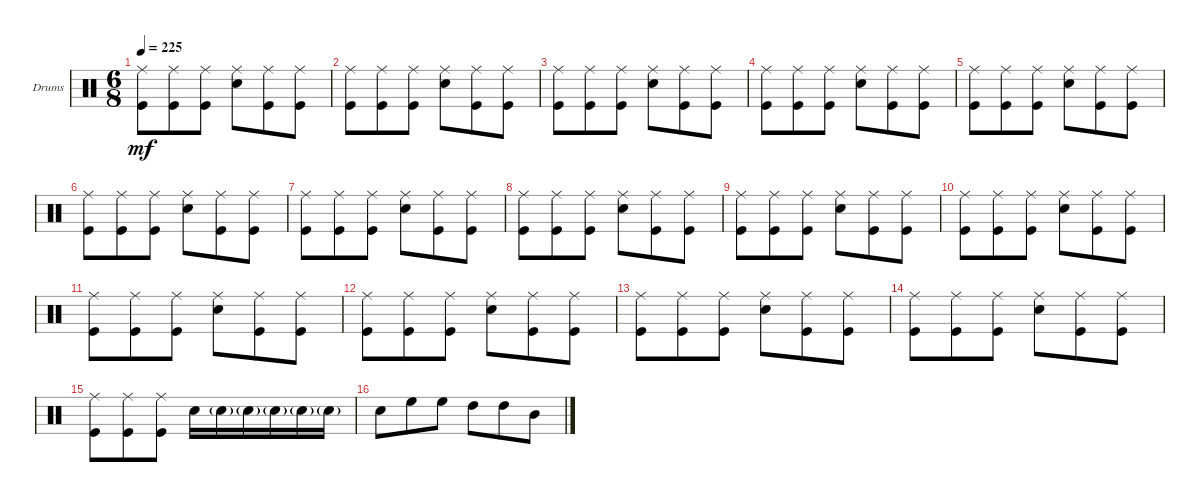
\bracketExtendMode groupsimilarinstruments
\firstSystemTrackNameOrientation horizontal
\otherSystemsTrackNameOrientation horizontal
\track ("Drumkit" "Drums") {instrument percussion}
\staff {score}
\articulation defaults
\ts (6 8)
\tempo 225
\clef neutral
\ks c
("Kick (hit)" "Ride (middle)").8{dy mf} ("Kick (hit)" "Ride (middle)").8 ("Kick (hit)" "Ride (middle)").8 ("Snare (hit) 2" "Ride (middle)").8 ("Kick (hit)" "Ride (middle)").8 ("Kick (hit)" "Ride (middle)").8 |
("Kick (hit)" "Ride (middle)").8 ("Kick (hit)" "Ride (middle)").8 ("Kick (hit)" "Ride (middle)").8 ("Snare (hit) 2" "Ride (middle)").8 ("Kick (hit)" "Ride (middle)").8 ("Kick (hit)" "Ride (middle)").8 |
("Kick (hit)" "Ride (middle)").8 ("Kick (hit)" "Ride (middle)").8 ("Kick (hit)" "Ride (middle)").8 ("Snare (hit) 2" "Ride (middle)").8 ("Kick (hit)" "Ride (middle)").8 ("Kick (hit)" "Ride (middle)").8 |
("Kick (hit)" "Ride (middle)").8 ("Kick (hit)" "Ride (middle)").8 ("Kick (hit)" "Ride (middle)").8 ("Snare (hit) 2" "Ride (middle)").8 ("Kick (hit)" "Ride (middle)").8 ("Kick (hit)" "Ride (middle)").8 |
("Kick (hit)" "Ride (middle)").8 ("Kick (hit)" "Ride (middle)").8 ("Kick (hit)" "Ride (middle)").8 ("Snare (hit) 2" "Ride (middle)").8 ("Kick (hit)" "Ride (middle)").8 ("Kick (hit)" "Ride (middle)").8 |
("Kick (hit)" "Ride (middle)").8 ("Kick (hit)" "Ride (middle)").8 ("Kick (hit)" "Ride (middle)").8 ("Snare (hit) 2" "Ride (middle)").8 ("Kick (hit)" "Ride (middle)").8 ("Kick (hit)" "Ride (middle)").8 |
("Kick (hit)" "Ride (middle)").8 ("Kick (hit)" "Ride (middle)").8 ("Kick (hit)" "Ride (middle)").8 ("Snare (hit) 2" "Ride (middle)").8 ("Kick (hit)" "Ride (middle)").8 ("Kick (hit)" "Ride (middle)").8 |
("Kick (hit)" "Ride (middle)").8 ("Kick (hit)" "Ride (middle)").8 ("Kick (hit)" "Ride (middle)").8 ("Snare (hit) 2" "Ride (middle)").8 ("Kick (hit)" "Ride (middle)").8 ("Kick (hit)" "Ride (middle)").8 |
("Kick (hit)" "Ride (middle)").8 ("Kick (hit)" "Ride (middle)").8 ("Kick (hit)" "Ride (middle)").8 ("Snare (hit) 2" "Ride (middle)").8 ("Kick (hit)" "Ride (middle)").8 ("Kick (hit)" "Ride (middle)").8 |
("Kick (hit)" "Ride (middle)").8 ("Kick (hit)" "Ride (middle)").8 ("Kick (hit)" "Ride (middle)").8 ("Snare (hit) 2" "Ride (middle)").8 ("Kick (hit)" "Ride (middle)").8 ("Kick (hit)" "Ride (middle)").8 |
("Kick (hit)" "Ride (middle)").8 ("Kick (hit)" "Ride (middle)").8 ("Kick (hit)" "Ride (middle)").8 ("Snare (hit) 2" "Ride (middle)").8 ("Kick (hit)" "Ride (middle)").8 ("Kick (hit)" "Ride (middle)").8 |
("Kick (hit)" "Ride (middle)").8 ("Kick (hit)" "Ride (middle)").8 ("Kick (hit)" "Ride (middle)").8 ("Snare (hit) 2" "Ride (middle)").8 ("Kick (hit)" "Ride (middle)").8 ("Kick (hit)" "Ride (middle)").8 |
("Kick (hit)" "Ride (middle)").8 ("Kick (hit)" "Ride (middle)").8 ("Kick (hit)" "Ride (middle)").8 ("Snare (hit) 2" "Ride (middle)").8 ("Kick (hit)" "Ride (middle)").8 ("Kick (hit)" "Ride (middle)").8 |
("Kick (hit)" "Ride (middle)").8 ("Kick (hit)" "Ride (middle)").8 ("Kick (hit)" "Ride (middle)").8 ("Snare (hit) 2" "Ride (middle)").8 ("Kick (hit)" "Ride (middle)").8 ("Kick (hit)" "Ride (middle)").8 |
("Kick (hit)" "Ride (middle)").8 ("Kick (hit)" "Ride (middle)").8 ("Kick (hit)" "Ride (middle)").8 "Snare (hit) 2".16 "Snare (hit) 2"{g}.16 "Snare (hit) 2"{g}.16 "Snare (hit) 2"{g}.16 "Snare (hit) 2"{g}.16 "Snare (hit) 2"{g}.16 |
"Snare (hit) 2".8 "High Floor Tom (hit)".8 "High Floor Tom (hit)".8 "High Tom (hit)".8 "High Tom (hit)".8 "Mid Tom (hit)".8
